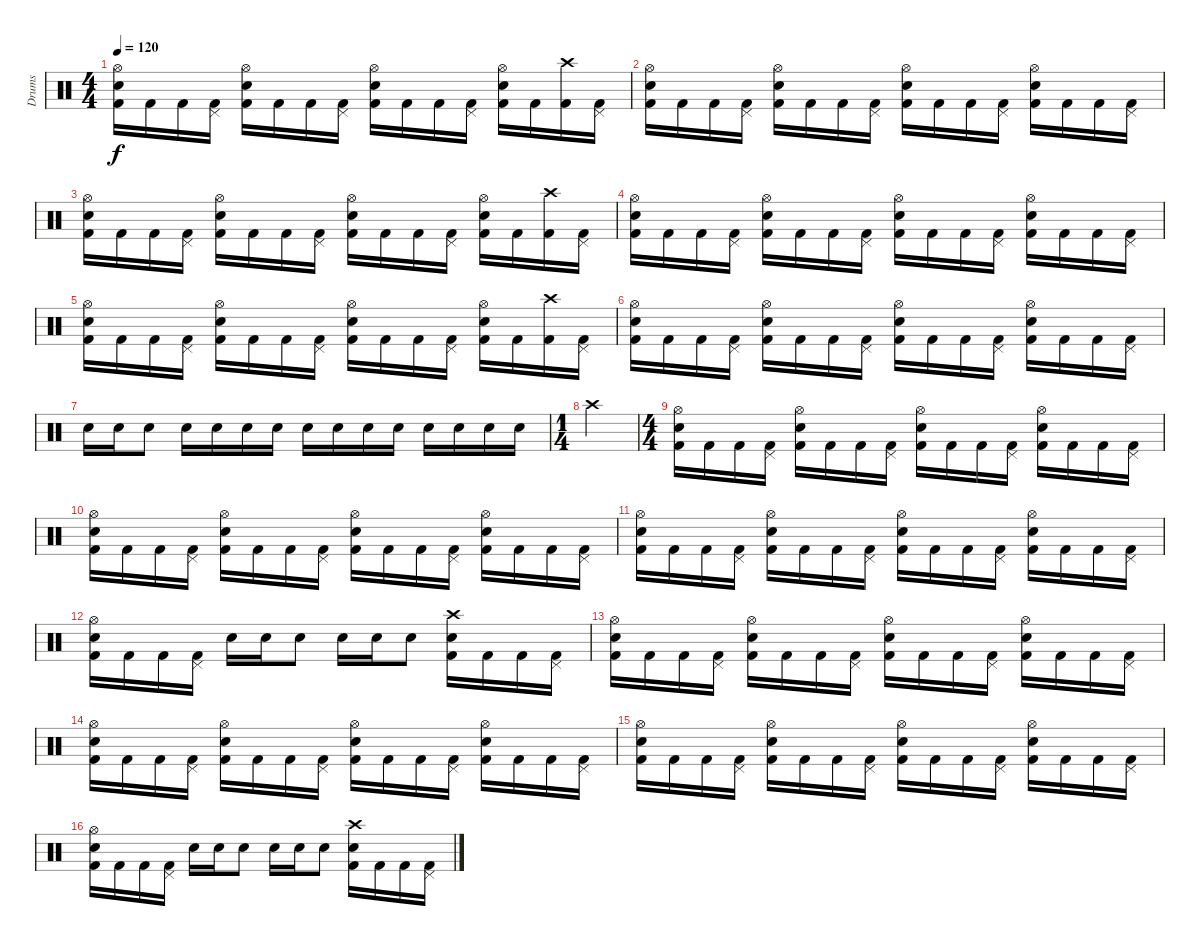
\track ("Drums" "Drums") {instrument percussion}
\staff {score}
\articulation defaults
\ts (4 4)
\tempo 120
\clef neutral
\ks c
("Hi-Hat (open)" "Snare (hit) 2" "Kick (hit) 2").16{dy f} "Kick (hit) 2".16 "Kick (hit) 2".16 ("Pedal Hi-Hat (hit)" "Kick (hit) 2").16 ("Hi-Hat (open)" "Snare (hit) 2" "Kick (hit) 2").16 "Kick (hit) 2".16 "Kick (hit) 2".16 ("Pedal Hi-Hat (hit)" "Kick (hit) 2").16 ("Hi-Hat (open)" "Snare (hit) 2" "Kick (hit) 2").16 "Kick (hit) 2".16 "Kick (hit) 2".16 ("Pedal Hi-Hat (hit)" "Kick (hit) 2").16 ("Hi-Hat (open)" "Snare (hit) 2" "Kick (hit) 2").16 "Kick (hit) 2".16 ("Crash high (hit)" "Kick (hit) 2").16 ("Pedal Hi-Hat (hit)" "Kick (hit) 2").16 |
("Hi-Hat (open)" "Snare (hit) 2" "Kick (hit) 2").16 "Kick (hit) 2".16 "Kick (hit) 2".16 ("Pedal Hi-Hat (hit)" "Kick (hit) 2").16 ("Hi-Hat (open)" "Snare (hit) 2" "Kick (hit) 2").16 "Kick (hit) 2".16 "Kick (hit) 2".16 ("Pedal Hi-Hat (hit)" "Kick (hit) 2").16 ("Hi-Hat (open)" "Snare (hit) 2" "Kick (hit) 2").16 "Kick (hit) 2".16 "Kick (hit) 2".16 ("Pedal Hi-Hat (hit)" "Kick (hit) 2").16 ("Hi-Hat (open)" "Snare (hit) 2" "Kick (hit) 2").16 "Kick (hit) 2".16 "Kick (hit) 2".16 ("Pedal Hi-Hat (hit)" "Kick (hit) 2").16 |
("Hi-Hat (open)" "Snare (hit) 2" "Kick (hit) 2").16 "Kick (hit) 2".16 "Kick (hit) 2".16 ("Pedal Hi-Hat (hit)" "Kick (hit) 2").16 ("Hi-Hat (open)" "Snare (hit) 2" "Kick (hit) 2").16 "Kick (hit) 2".16 "Kick (hit) 2".16 ("Pedal Hi-Hat (hit)" "Kick (hit) 2").16 ("Hi-Hat (open)" "Snare (hit) 2" "Kick (hit) 2").16 "Kick (hit) 2".16 "Kick (hit) 2".16 ("Pedal Hi-Hat (hit)" "Kick (hit) 2").16 ("Hi-Hat (open)" "Snare (hit) 2" "Kick (hit) 2").16 "Kick (hit) 2".16 ("Crash high (hit)" "Kick (hit) 2").16 ("Pedal Hi-Hat (hit)" "Kick (hit) 2").16 |
("Hi-Hat (open)" "Snare (hit) 2" "Kick (hit) 2").16 "Kick (hit) 2".16 "Kick (hit) 2".16 ("Pedal Hi-Hat (hit)" "Kick (hit) 2").16 ("Hi-Hat (open)" "Snare (hit) 2" "Kick (hit) 2").16 "Kick (hit) 2".16 "Kick (hit) 2".16 ("Pedal Hi-Hat (hit)" "Kick (hit) 2").16 ("Hi-Hat (open)" "Snare (hit) 2" "Kick (hit) 2").16 "Kick (hit) 2".16 "Kick (hit) 2".16 ("Pedal Hi-Hat (hit)" "Kick (hit) 2").16 ("Hi-Hat (open)" "Snare (hit) 2" "Kick (hit) 2").16 "Kick (hit) 2".16 "Kick (hit) 2".16 ("Pedal Hi-Hat (hit)" "Kick (hit) 2").16 |
("Hi-Hat (open)" "Snare (hit) 2" "Kick (hit) 2").16 "Kick (hit) 2".16 "Kick (hit) 2".16 ("Pedal Hi-Hat (hit)" "Kick (hit) 2").16 ("Hi-Hat (open)" "Snare (hit) 2" "Kick (hit) 2").16 "Kick (hit) 2".16 "Kick (hit) 2".16 ("Pedal Hi-Hat (hit)" "Kick (hit) 2").16 ("Hi-Hat (open)" "Snare (hit) 2" "Kick (hit) 2").16 "Kick (hit) 2".16 "Kick (hit) 2".16 ("Pedal Hi-Hat (hit)" "Kick (hit) 2").16 ("Hi-Hat (open)" "Snare (hit) 2" "Kick (hit) 2").16 "Kick (hit) 2".16 ("Crash high (hit)" "Kick (hit) 2").16 ("Pedal Hi-Hat (hit)" "Kick (hit) 2").16 |
("Hi-Hat (open)" "Snare (hit) 2" "Kick (hit) 2").16 "Kick (hit) 2".16 "Kick (hit) 2".16 ("Pedal Hi-Hat (hit)" "Kick (hit) 2").16 ("Hi-Hat (open)" "Snare (hit) 2" "Kick (hit) 2").16 "Kick (hit) 2".16 "Kick (hit) 2".16 ("Pedal Hi-Hat (hit)" "Kick (hit) 2").16 ("Hi-Hat (open)" "Snare (hit) 2" "Kick (hit) 2").16 "Kick (hit) 2".16 "Kick (hit) 2".16 ("Pedal Hi-Hat (hit)" "Kick (hit) 2").16 ("Hi-Hat (open)" "Snare (hit) 2" "Kick (hit) 2").16 "Kick (hit) 2".16 "Kick (hit) 2".16 ("Pedal Hi-Hat (hit)" "Kick (hit) 2").16 |
"Electric Snare (hit)".16 "Electric Snare (hit)".16 "Electric Snare (hit)".8 "Electric Snare (hit)".16 "Electric Snare (hit)".16 "Electric Snare (hit)".16 "Electric Snare (hit)".16 "Snare (hit) 2".16 "Snare (hit) 2".16 "Snare (hit) 2".16 "Snare (hit) 2".16 "Electric Snare (hit)".16 "Electric Snare (hit)".16 "Electric Snare (hit)".16 "Electric Snare (hit)".16 |
\ts (1 4)
"Crash high (hit)".4 |
\ts (4 4)
("Hi-Hat (open)" "Snare (hit) 2" "Kick (hit) 2").16 "Kick (hit) 2".16 "Kick (hit) 2".16 ("Pedal Hi-Hat (hit)" "Kick (hit) 2").16 ("Hi-Hat (open)" "Snare (hit) 2" "Kick (hit) 2").16 "Kick (hit) 2".16 "Kick (hit) 2".16 ("Pedal Hi-Hat (hit)" "Kick (hit) 2").16 ("Hi-Hat (open)" "Snare (hit) 2" "Kick (hit) 2").16 "Kick (hit) 2".16 "Kick (hit) 2".16 ("Pedal Hi-Hat (hit)" "Kick (hit) 2").16 ("Hi-Hat (open)" "Snare (hit) 2" "Kick (hit) 2").16 "Kick (hit) 2".16 "Kick (hit) 2".16 ("Pedal Hi-Hat (hit)" "Kick (hit) 2").16 |
("Hi-Hat (open)" "Snare (hit) 2" "Kick (hit) 2").16 "Kick (hit) 2".16 "Kick (hit) 2".16 ("Pedal Hi-Hat (hit)" "Kick (hit) 2").16 ("Hi-Hat (open)" "Snare (hit) 2" "Kick (hit) 2").16 "Kick (hit) 2".16 "Kick (hit) 2".16 ("Pedal Hi-Hat (hit)" "Kick (hit) 2").16 ("Hi-Hat (open)" "Snare (hit) 2" "Kick (hit) 2").16 "Kick (hit) 2".16 "Kick (hit) 2".16 ("Pedal Hi-Hat (hit)" "Kick (hit) 2").16 ("Hi-Hat (open)" "Snare (hit) 2" "Kick (hit) 2").16 "Kick (hit) 2".16 "Kick (hit) 2".16 ("Pedal Hi-Hat (hit)" "Kick (hit) 2").16 |
("Hi-Hat (open)" "Snare (hit) 2" "Kick (hit) 2").16 "Kick (hit) 2".16 "Kick (hit) 2".16 ("Pedal Hi-Hat (hit)" "Kick (hit) 2").16 ("Hi-Hat (open)" "Snare (hit) 2" "Kick (hit) 2").16 "Kick (hit) 2".16 "Kick (hit) 2".16 ("Pedal Hi-Hat (hit)" "Kick (hit) 2").16 ("Hi-Hat (open)" "Snare (hit) 2" "Kick (hit) 2").16 "Kick (hit) 2".16 "Kick (hit) 2".16 ("Pedal Hi-Hat (hit)" "Kick (hit) 2").16 ("Hi-Hat (open)" "Snare (hit) 2" "Kick (hit) 2").16 "Kick (hit) 2".16 "Kick (hit) 2".16 ("Pedal Hi-Hat (hit)" "Kick (hit) 2").16 |
("Hi-Hat (open)" "Snare (hit) 2" "Kick (hit) 2").16 "Kick (hit) 2".16 "Kick (hit) 2".16 ("Pedal Hi-Hat (hit)" "Kick (hit) 2").16 "Electric Snare (hit)".16 "Electric Snare (hit)".16 "Electric Snare (hit)".8 "Electric Snare (hit)".16 "Electric Snare (hit)".16 "Electric Snare (hit)".8 ("Crash high (hit)" "Snare (hit) 2" "Kick (hit) 2").16 "Kick (hit) 2".16 "Kick (hit) 2".16 ("Pedal Hi-Hat (hit)" "Kick (hit) 2").16 |
("Hi-Hat (open)" "Snare (hit) 2" "Kick (hit) 2").16 "Kick (hit) 2".16 "Kick (hit) 2".16 ("Pedal Hi-Hat (hit)" "Kick (hit) 2").16 ("Hi-Hat (open)" "Snare (hit) 2" "Kick (hit) 2").16 "Kick (hit) 2".16 "Kick (hit) 2".16 ("Pedal Hi-Hat (hit)" "Kick (hit) 2").16 ("Hi-Hat (open)" "Snare (hit) 2" "Kick (hit) 2").16 "Kick (hit) 2".16 "Kick (hit) 2".16 ("Pedal Hi-Hat (hit)" "Kick (hit) 2").16 ("Hi-Hat (open)" "Snare (hit) 2" "Kick (hit) 2").16 "Kick (hit) 2".16 "Kick (hit) 2".16 ("Pedal Hi-Hat (hit)" "Kick (hit) 2").16 |
("Hi-Hat (open)" "Snare (hit) 2" "Kick (hit) 2").16 "Kick (hit) 2".16 "Kick (hit) 2".16 ("Pedal Hi-Hat (hit)" "Kick (hit) 2").16 ("Hi-Hat (open)" "Snare (hit) 2" "Kick (hit) 2").16 "Kick (hit) 2".16 "Kick (hit) 2".16 ("Pedal Hi-Hat (hit)" "Kick (hit) 2").16 ("Hi-Hat (open)" "Snare (hit) 2" "Kick (hit) 2").16 "Kick (hit) 2".16 "Kick (hit) 2".16 ("Pedal Hi-Hat (hit)" "Kick (hit) 2").16 ("Hi-Hat (open)" "Snare (hit) 2" "Kick (hit) 2").16 "Kick (hit) 2".16 "Kick (hit) 2".16 ("Pedal Hi-Hat (hit)" "Kick (hit) 2").16 |
("Hi-Hat (open)" "Snare (hit) 2" "Kick (hit) 2").16 "Kick (hit) 2".16 "Kick (hit) 2".16 ("Pedal Hi-Hat (hit)" "Kick (hit) 2").16 ("Hi-Hat (open)" "Snare (hit) 2" "Kick (hit) 2").16 "Kick (hit) 2".16 "Kick (hit) 2".16 ("Pedal Hi-Hat (hit)" "Kick (hit) 2").16 ("Hi-Hat (open)" "Snare (hit) 2" "Kick (hit) 2").16 "Kick (hit) 2".16 "Kick (hit) 2".16 ("Pedal Hi-Hat (hit)" "Kick (hit) 2").16 ("Hi-Hat (open)" "Snare (hit) 2" "Kick (hit) 2").16 "Kick (hit) 2".16 "Kick (hit) 2".16 ("Pedal Hi-Hat (hit)" "Kick (hit) 2").16 |
("Hi-Hat (open)" "Snare (hit) 2" "Kick (hit) 2").16 "Kick (hit) 2".16 "Kick (hit) 2".16 ("Pedal Hi-Hat (hit)" "Kick (hit) 2").16 "Electric Snare (hit)".16 "Electric Snare (hit)".16 "Electric Snare (hit)".8 "Electric Snare (hit)".16 "Electric Snare (hit)".16 "Electric Snare (hit)".8 ("Crash high (hit)" "Snare (hit) 2" "Kick (hit) 2").16 "Kick (hit) 2".16 "Kick (hit) 2".16 ("Pedal Hi-Hat (hit)" "Kick (hit) 2").16
